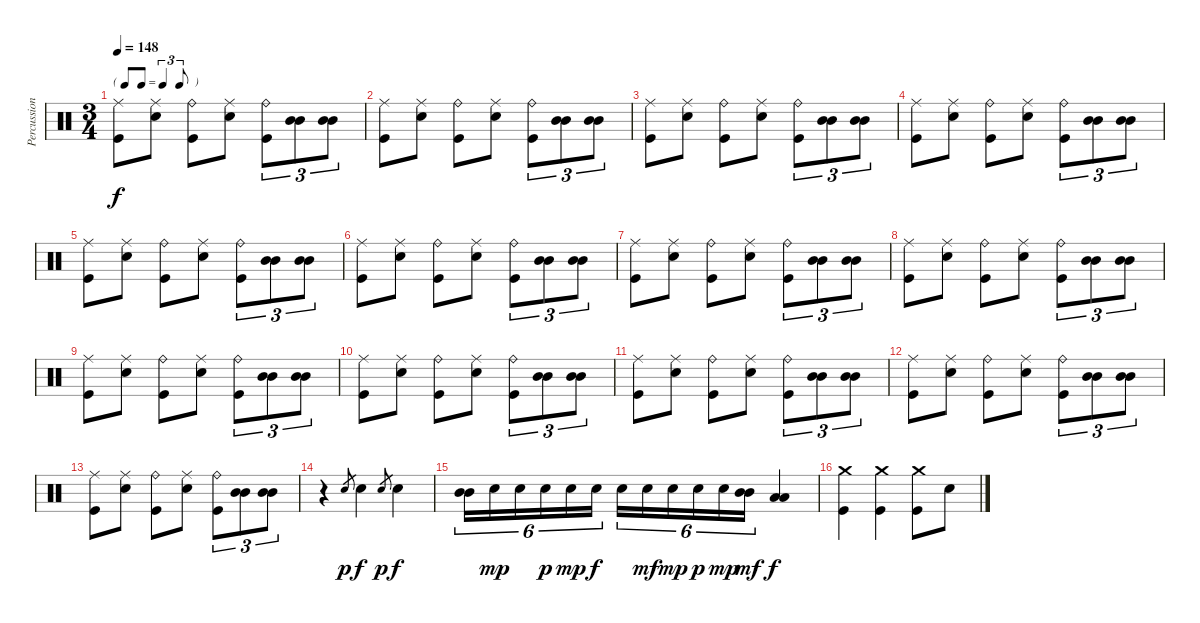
\track ("Percussions" "Percussion") {instrument percussion}
\staff {score}
\articulation defaults
\ts (3 4)
\tf triplet8th
\tempo 148
\clef neutral
\ks c
("Ride (middle)" "Kick (hit)").8{dy f} ("Ride (middle)" "Electric Snare (hit)").8 ("Ride (bell)" "Kick (hit)").8 ("Ride (middle)" "Electric Snare (hit)").8 ("Ride (bell)" "Kick (hit)").8{tu (3 2)} ("Mid Tom (hit)" "Mid Tom (hit)").8{tu (3 2)} ("Mid Tom (hit)" "Mid Tom (hit)").8{tu (3 2)} |
("Ride (middle)" "Kick (hit)").8 ("Ride (middle)" "Electric Snare (hit)").8 ("Ride (bell)" "Kick (hit)").8 ("Ride (middle)" "Electric Snare (hit)").8 ("Ride (bell)" "Kick (hit)").8{tu (3 2)} ("Mid Tom (hit)" "Mid Tom (hit)").8{tu (3 2)} ("Mid Tom (hit)" "Mid Tom (hit)").8{tu (3 2)} |
("Ride (middle)" "Kick (hit)").8 ("Ride (middle)" "Electric Snare (hit)").8 ("Ride (bell)" "Kick (hit)").8 ("Ride (middle)" "Electric Snare (hit)").8 ("Ride (bell)" "Kick (hit)").8{tu (3 2)} ("Mid Tom (hit)" "Mid Tom (hit)").8{tu (3 2)} ("Mid Tom (hit)" "Mid Tom (hit)").8{tu (3 2)} |
("Ride (middle)" "Kick (hit)").8 ("Ride (middle)" "Electric Snare (hit)").8 ("Ride (bell)" "Kick (hit)").8 ("Ride (middle)" "Electric Snare (hit)").8 ("Ride (bell)" "Kick (hit)").8{tu (3 2)} ("Mid Tom (hit)" "Mid Tom (hit)").8{tu (3 2)} ("Mid Tom (hit)" "Mid Tom (hit)").8{tu (3 2)} |
("Ride (middle)" "Kick (hit)").8 ("Ride (middle)" "Electric Snare (hit)").8 ("Ride (bell)" "Kick (hit)").8 ("Ride (middle)" "Electric Snare (hit)").8 ("Ride (bell)" "Kick (hit)").8{tu (3 2)} ("Mid Tom (hit)" "Mid Tom (hit)").8{tu (3 2)} ("Mid Tom (hit)" "Mid Tom (hit)").8{tu (3 2)} |
("Ride (middle)" "Kick (hit)").8 ("Ride (middle)" "Electric Snare (hit)").8 ("Ride (bell)" "Kick (hit)").8 ("Ride (middle)" "Electric Snare (hit)").8 ("Ride (bell)" "Kick (hit)").8{tu (3 2)} ("Mid Tom (hit)" "Mid Tom (hit)").8{tu (3 2)} ("Mid Tom (hit)" "Mid Tom (hit)").8{tu (3 2)} |
("Ride (middle)" "Kick (hit)").8 ("Ride (middle)" "Electric Snare (hit)").8 ("Ride (bell)" "Kick (hit)").8 ("Ride (middle)" "Electric Snare (hit)").8 ("Ride (bell)" "Kick (hit)").8{tu (3 2)} ("Mid Tom (hit)" "Mid Tom (hit)").8{tu (3 2)} ("Mid Tom (hit)" "Mid Tom (hit)").8{tu (3 2)} |
("Ride (middle)" "Kick (hit)").8 ("Ride (middle)" "Electric Snare (hit)").8 ("Ride (bell)" "Kick (hit)").8 ("Ride (middle)" "Electric Snare (hit)").8 ("Ride (bell)" "Kick (hit)").8{tu (3 2)} ("Mid Tom (hit)" "Mid Tom (hit)").8{tu (3 2)} ("Mid Tom (hit)" "Mid Tom (hit)").8{tu (3 2)} |
("Ride (middle)" "Kick (hit)").8 ("Ride (middle)" "Electric Snare (hit)").8 ("Ride (bell)" "Kick (hit)").8 ("Ride (middle)" "Electric Snare (hit)").8 ("Ride (bell)" "Kick (hit)").8{tu (3 2)} ("Mid Tom (hit)" "Mid Tom (hit)").8{tu (3 2)} ("Mid Tom (hit)" "Mid Tom (hit)").8{tu (3 2)} |
("Ride (middle)" "Kick (hit)").8 ("Ride (middle)" "Electric Snare (hit)").8 ("Ride (bell)" "Kick (hit)").8 ("Ride (middle)" "Electric Snare (hit)").8 ("Ride (bell)" "Kick (hit)").8{tu (3 2)} ("Mid Tom (hit)" "Mid Tom (hit)").8{tu (3 2)} ("Mid Tom (hit)" "Mid Tom (hit)").8{tu (3 2)} |
("Ride (middle)" "Kick (hit)").8 ("Ride (middle)" "Electric Snare (hit)").8 ("Ride (bell)" "Kick (hit)").8 ("Ride (middle)" "Electric Snare (hit)").8 ("Ride (bell)" "Kick (hit)").8{tu (3 2)} ("Mid Tom (hit)" "Mid Tom (hit)").8{tu (3 2)} ("Mid Tom (hit)" "Mid Tom (hit)").8{tu (3 2)} |
("Ride (middle)" "Kick (hit)").8 ("Ride (middle)" "Electric Snare (hit)").8 ("Ride (bell)" "Kick (hit)").8 ("Ride (middle)" "Electric Snare (hit)").8 ("Ride (bell)" "Kick (hit)").8{tu (3 2)} ("Mid Tom (hit)" "Mid Tom (hit)").8{tu (3 2)} ("Mid Tom (hit)" "Mid Tom (hit)").8{tu (3 2)} |
("Ride (middle)" "Kick (hit)").8 ("Ride (middle)" "Electric Snare (hit)").8 ("Ride (bell)" "Kick (hit)").8 ("Ride (middle)" "Electric Snare (hit)").8 ("Ride (bell)" "Kick (hit)").8{tu (3 2)} ("Mid Tom (hit)" "Mid Tom (hit)").8{tu (3 2)} ("Mid Tom (hit)" "Mid Tom (hit)").8{tu (3 2)} |
r.4 "Electric Snare (hit)".8{gr dy p} "Electric Snare (hit)".4{dy f} "Electric Snare (hit)".8{gr dy p} "Electric Snare (hit)".4{dy f} |
("Mid Tom (hit)" "Mid Tom (hit)").16{tu (6 4)} "Electric Snare (hit)".16{tu (6 4) dy mp} "Electric Snare (hit)".16{tu (6 4)} "Electric Snare (hit)".16{tu (6 4) dy p} "Electric Snare (hit)".16{tu (6 4) dy mp} "Electric Snare (hit)".16{tu (6 4) dy f} "Electric Snare (hit)".16{tu (6 4)} "Electric Snare (hit)".16{tu (6 4) dy mf} "Electric Snare (hit)".16{tu (6 4) dy mp} "Electric Snare (hit)".16{tu (6 4) dy p} "Electric Snare (hit)".16{tu (6 4) dy mp} ("Mid Tom (hit)" "Mid Tom (hit)").16{tu (6 4) dy mf} ("Low Tom (hit)" "Low Tom (hit)").4{dy f} |
("Crash medium (hit)" "Kick (hit)").4 ("Crash medium (hit)" "Kick (hit)").4 ("Crash medium (hit)" "Kick (hit)").8 "Electric Snare (hit)".8
